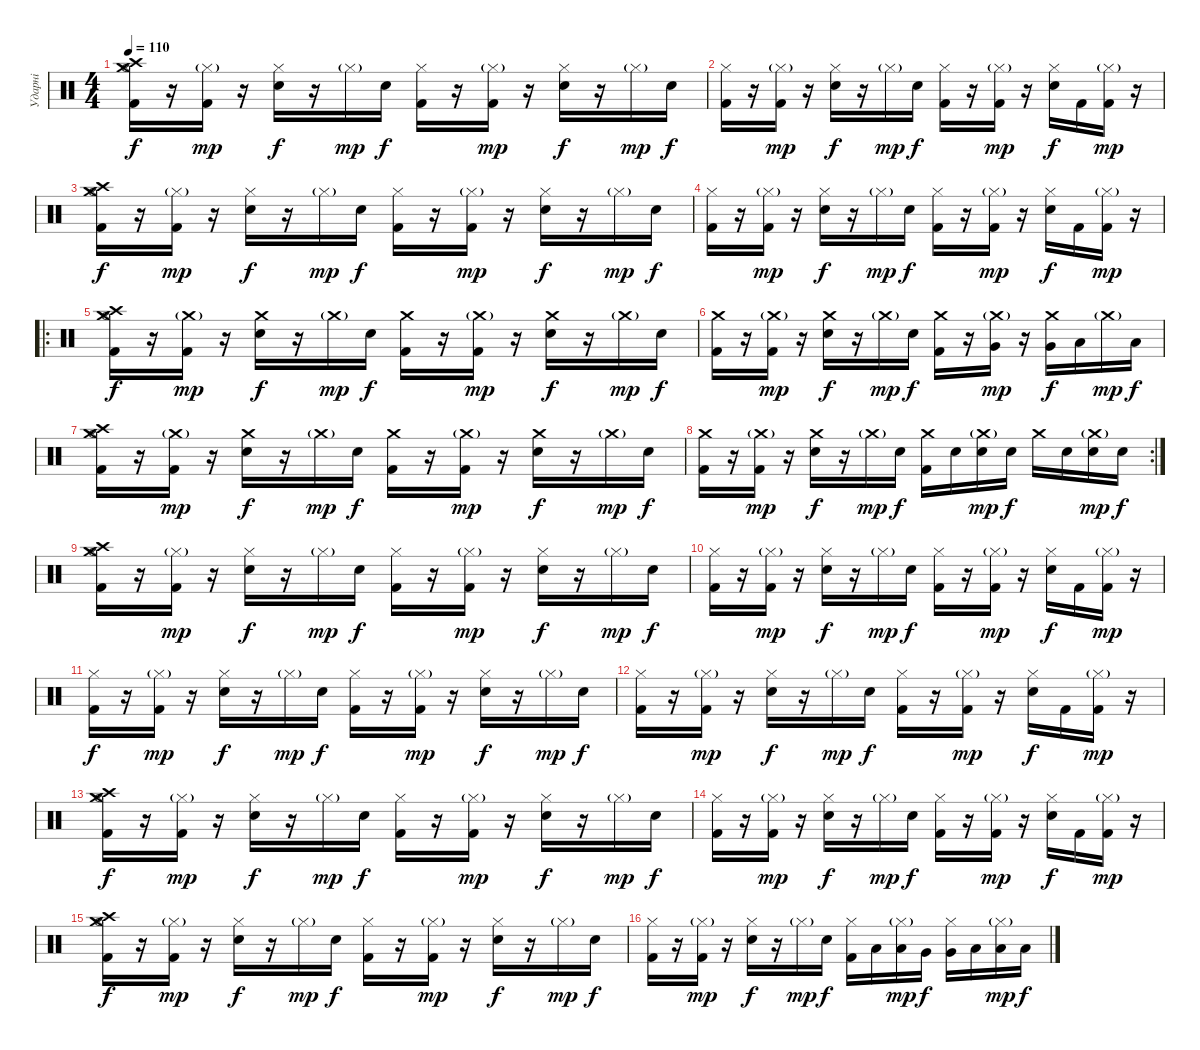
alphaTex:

\track ("Ударні" "Ударні") {instrument percussion}
\staff {score}
\articulation defaults
\ts (4 4)
\tempo 110
\clef neutral
\ks c
("Crash high (hit)" "Crash medium (hit)" "Hi-Hat (open)" "Kick (hit) 2").16{dy f volume 14} r.16 ("Hi-Hat (closed)"{g} "Kick (hit) 2").16{dy mp} r.16 ("Hi-Hat (closed)" "Electric Snare (hit)").16{dy f} r.16 "Hi-Hat (closed)"{g}.16{dy mp} "Electric Snare (hit)".16{dy f} ("Hi-Hat (closed)" "Kick (hit) 2").16 r.16 ("Hi-Hat (closed)"{g} "Kick (hit) 2").16{dy mp} r.16 ("Hi-Hat (closed)" "Electric Snare (hit)").16{dy f} r.16 "Hi-Hat (closed)"{g}.16{dy mp} "Electric Snare (hit)".16{dy f} |
("Hi-Hat (closed)" "Kick (hit) 2").16{volume 14} r.16 ("Hi-Hat (closed)"{g} "Kick (hit) 2").16{dy mp} r.16 ("Hi-Hat (closed)" "Electric Snare (hit)").16{dy f} r.16 "Hi-Hat (closed)"{g}.16{dy mp} "Electric Snare (hit)".16{dy f} ("Hi-Hat (closed)" "Kick (hit) 2").16 r.16 ("Hi-Hat (closed)"{g} "Kick (hit) 2").16{dy mp} r.16 ("Hi-Hat (closed)" "Electric Snare (hit)").16{dy f} "Kick (hit) 2".16 ("Hi-Hat (closed)"{g} "Kick (hit) 2").16{dy mp} r.16 |
("Crash high (hit)" "Crash medium (hit)" "Hi-Hat (open)" "Kick (hit) 2").16{dy f volume 14} r.16 ("Hi-Hat (closed)"{g} "Kick (hit) 2").16{dy mp} r.16 ("Hi-Hat (closed)" "Electric Snare (hit)").16{dy f} r.16 "Hi-Hat (closed)"{g}.16{dy mp} "Electric Snare (hit)".16{dy f} ("Hi-Hat (closed)" "Kick (hit) 2").16 r.16 ("Hi-Hat (closed)"{g} "Kick (hit) 2").16{dy mp} r.16 ("Hi-Hat (closed)" "Electric Snare (hit)").16{dy f} r.16 "Hi-Hat (closed)"{g}.16{dy mp} "Electric Snare (hit)".16{dy f} |
("Hi-Hat (closed)" "Kick (hit) 2").16{volume 14} r.16 ("Hi-Hat (closed)"{g} "Kick (hit) 2").16{dy mp} r.16 ("Hi-Hat (closed)" "Electric Snare (hit)").16{dy f} r.16 "Hi-Hat (closed)"{g}.16{dy mp} "Electric Snare (hit)".16{dy f} ("Hi-Hat (closed)" "Kick (hit) 2").16 r.16 ("Hi-Hat (closed)"{g} "Kick (hit) 2").16{dy mp} r.16 ("Hi-Hat (closed)" "Electric Snare (hit)").16{dy f} "Kick (hit) 2".16 ("Hi-Hat (closed)"{g} "Kick (hit) 2").16{dy mp} r.16 |
\ro
("Crash high (hit)" "Crash medium (hit)" "Hi-Hat (open)" "Kick (hit) 2").16{dy f volume 14} r.16 ("Crash medium (hit)"{g} "Kick (hit) 2").16{dy mp} r.16 ("Crash medium (hit)" "Electric Snare (hit)").16{dy f} r.16 "Crash medium (hit)"{g}.16{dy mp} "Electric Snare (hit)".16{dy f} ("Crash medium (hit)" "Kick (hit) 2").16 r.16 ("Crash medium (hit)"{g} "Kick (hit) 2").16{dy mp} r.16 ("Crash medium (hit)" "Electric Snare (hit)").16{dy f} r.16 "Crash medium (hit)"{g}.16{dy mp} "Electric Snare (hit)".16{dy f} |
("Crash medium (hit)" "Kick (hit) 2").16{volume 14} r.16 ("Crash medium (hit)"{g} "Kick (hit) 2").16{dy mp} r.16 ("Crash medium (hit)" "Electric Snare (hit)").16{dy f} r.16 "Crash medium (hit)"{g}.16{dy mp} "Electric Snare (hit)".16{dy f} ("Crash medium (hit)" "Kick (hit) 2").16 r.16 ("Crash medium (hit)"{g} "Very Low Tom (hit)").16{dy mp} r.16 ("Crash medium (hit)" "Very Low Tom (hit)").16{dy f} "Low Floor Tom (hit)".16 "Crash medium (hit)"{g}.16{dy mp} "Low Floor Tom (hit)".16{dy f} |
("Crash high (hit)" "Crash medium (hit)" "Hi-Hat (open)" "Kick (hit) 2").16{volume 14} r.16 ("Crash medium (hit)"{g} "Kick (hit) 2").16{dy mp} r.16 ("Crash medium (hit)" "Electric Snare (hit)").16{dy f} r.16 "Crash medium (hit)"{g}.16{dy mp} "Electric Snare (hit)".16{dy f} ("Crash medium (hit)" "Kick (hit) 2").16 r.16 ("Crash medium (hit)"{g} "Kick (hit) 2").16{dy mp} r.16 ("Crash medium (hit)" "Electric Snare (hit)").16{dy f} r.16 "Crash medium (hit)"{g}.16{dy mp} "Electric Snare (hit)".16{dy f} |
\rc 2
("Crash medium (hit)" "Kick (hit) 2").16{volume 14} r.16 ("Crash medium (hit)"{g} "Kick (hit) 2").16{dy mp} r.16 ("Crash medium (hit)" "Electric Snare (hit)").16{dy f} r.16 "Crash medium (hit)"{g}.16{dy mp} "Electric Snare (hit)".16{dy f} ("Crash medium (hit)" "Kick (hit) 2").16 "Electric Snare (hit)".16 ("Crash medium (hit)"{g} "Electric Snare (hit)").16{dy mp} "Electric Snare (hit)".16{dy f} "Crash medium (hit)".16 "Electric Snare (hit)".16 ("Crash medium (hit)"{g} "Electric Snare (hit)").16{dy mp} "Electric Snare (hit)".16{dy f} |
("Crash high (hit)" "Crash medium (hit)" "Hi-Hat (open)" "Kick (hit) 2").16{volume 14} r.16 ("Hi-Hat (closed)"{g} "Kick (hit) 2").16{dy mp} r.16 ("Hi-Hat (closed)" "Electric Snare (hit)").16{dy f} r.16 "Hi-Hat (closed)"{g}.16{dy mp} "Electric Snare (hit)".16{dy f} ("Hi-Hat (closed)" "Kick (hit) 2").16 r.16 ("Hi-Hat (closed)"{g} "Kick (hit) 2").16{dy mp} r.16 ("Hi-Hat (closed)" "Electric Snare (hit)").16{dy f} r.16 "Hi-Hat (closed)"{g}.16{dy mp} "Electric Snare (hit)".16{dy f} |
("Hi-Hat (closed)" "Kick (hit) 2").16{volume 14} r.16 ("Hi-Hat (closed)"{g} "Kick (hit) 2").16{dy mp} r.16 ("Hi-Hat (closed)" "Electric Snare (hit)").16{dy f} r.16 "Hi-Hat (closed)"{g}.16{dy mp} "Electric Snare (hit)".16{dy f} ("Hi-Hat (closed)" "Kick (hit) 2").16 r.16 ("Hi-Hat (closed)"{g} "Kick (hit) 2").16{dy mp} r.16 ("Hi-Hat (closed)" "Electric Snare (hit)").16{dy f} "Kick (hit) 2".16 ("Hi-Hat (closed)"{g} "Kick (hit) 2").16{dy mp} r.16 |
("Hi-Hat (closed)" "Kick (hit) 2").16{dy f volume 14} r.16 ("Hi-Hat (closed)"{g} "Kick (hit) 2").16{dy mp} r.16 ("Hi-Hat (closed)" "Electric Snare (hit)").16{dy f} r.16 "Hi-Hat (closed)"{g}.16{dy mp} "Electric Snare (hit)".16{dy f} ("Hi-Hat (closed)" "Kick (hit) 2").16 r.16 ("Hi-Hat (closed)"{g} "Kick (hit) 2").16{dy mp} r.16 ("Hi-Hat (closed)" "Electric Snare (hit)").16{dy f} r.16 "Hi-Hat (closed)"{g}.16{dy mp} "Electric Snare (hit)".16{dy f} |
("Hi-Hat (closed)" "Kick (hit) 2").16{volume 14} r.16 ("Hi-Hat (closed)"{g} "Kick (hit) 2").16{dy mp} r.16 ("Hi-Hat (closed)" "Electric Snare (hit)").16{dy f} r.16 "Hi-Hat (closed)"{g}.16{dy mp} "Electric Snare (hit)".16{dy f} ("Hi-Hat (closed)" "Kick (hit) 2").16 r.16 ("Hi-Hat (closed)"{g} "Kick (hit) 2").16{dy mp} r.16 ("Hi-Hat (closed)" "Electric Snare (hit)").16{dy f} "Kick (hit) 2".16 ("Hi-Hat (closed)"{g} "Kick (hit) 2").16{dy mp} r.16 |
("Crash high (hit)" "Crash medium (hit)" "Hi-Hat (open)" "Kick (hit) 2").16{dy f volume 14} r.16 ("Hi-Hat (closed)"{g} "Kick (hit) 2").16{dy mp} r.16 ("Hi-Hat (closed)" "Electric Snare (hit)").16{dy f} r.16 "Hi-Hat (closed)"{g}.16{dy mp} "Electric Snare (hit)".16{dy f} ("Hi-Hat (closed)" "Kick (hit) 2").16 r.16 ("Hi-Hat (closed)"{g} "Kick (hit) 2").16{dy mp} r.16 ("Hi-Hat (closed)" "Electric Snare (hit)").16{dy f} r.16 "Hi-Hat (closed)"{g}.16{dy mp} "Electric Snare (hit)".16{dy f} |
("Hi-Hat (closed)" "Kick (hit) 2").16{volume 14} r.16 ("Hi-Hat (closed)"{g} "Kick (hit) 2").16{dy mp} r.16 ("Hi-Hat (closed)" "Electric Snare (hit)").16{dy f} r.16 "Hi-Hat (closed)"{g}.16{dy mp} "Electric Snare (hit)".16{dy f} ("Hi-Hat (closed)" "Kick (hit) 2").16 r.16 ("Hi-Hat (closed)"{g} "Kick (hit) 2").16{dy mp} r.16 ("Hi-Hat (closed)" "Electric Snare (hit)").16{dy f} "Kick (hit) 2".16 ("Hi-Hat (closed)"{g} "Kick (hit) 2").16{dy mp} r.16 |
("Crash high (hit)" "Crash medium (hit)" "Hi-Hat (open)" "Kick (hit) 2").16{dy f volume 14} r.16 ("Hi-Hat (closed)"{g} "Kick (hit) 2").16{dy mp} r.16 ("Hi-Hat (closed)" "Electric Snare (hit)").16{dy f} r.16 "Hi-Hat (closed)"{g}.16{dy mp} "Electric Snare (hit)".16{dy f} ("Hi-Hat (closed)" "Kick (hit) 2").16 r.16 ("Hi-Hat (closed)"{g} "Kick (hit) 2").16{dy mp} r.16 ("Hi-Hat (closed)" "Electric Snare (hit)").16{dy f} r.16 "Hi-Hat (closed)"{g}.16{dy mp} "Electric Snare (hit)".16{dy f} |
("Hi-Hat (closed)" "Kick (hit) 2").16{volume 14} r.16 ("Hi-Hat (closed)"{g} "Kick (hit) 2").16{dy mp} r.16 ("Hi-Hat (closed)" "Electric Snare (hit)").16{dy f} r.16 "Hi-Hat (closed)"{g}.16{dy mp} "Electric Snare (hit)".16{dy f} ("Hi-Hat (closed)" "Kick (hit) 2").16 "Low Tom (hit)".16 ("Hi-Hat (closed)"{g} "Low Tom (hit)").16{dy mp} "Very Low Tom (hit)".16{dy f} ("Hi-Hat (closed)" "Very Low Tom (hit)").16 "Low Floor Tom (hit)".16 ("Hi-Hat (closed)"{g} "Low Floor Tom (hit)").16{dy mp} "Low Floor Tom (hit)".16{dy f}
